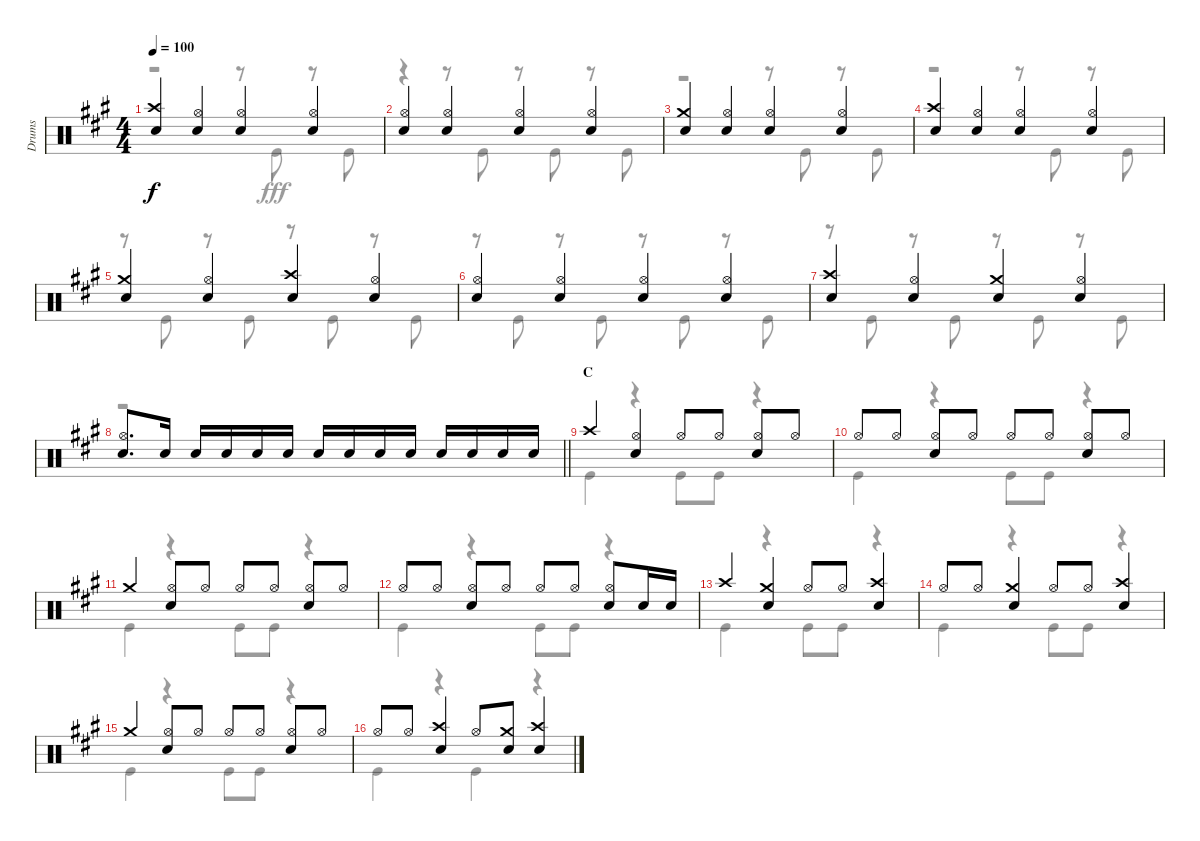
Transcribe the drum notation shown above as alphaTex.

\track ("Drums" "Drums") {instrument percussion}
\staff {score}
\articulation defaults
\voice
\ts (4 4)
\tempo 100
\clef neutral
\ks a
("Crash high (hit)" "Snare (hit) 2").4{dy f} ("Hi-Hat (open)" "Snare (hit) 2").4 ("Hi-Hat (open)" "Snare (hit) 2").4 ("Hi-Hat (open)" "Snare (hit) 2").4 |
("Hi-Hat (open)" "Snare (hit) 2").4 ("Hi-Hat (open)" "Snare (hit) 2").4 ("Hi-Hat (open)" "Snare (hit) 2").4 ("Hi-Hat (open)" "Snare (hit) 2").4 |
("Crash medium (hit)" "Snare (hit) 2").4 ("Hi-Hat (open)" "Snare (hit) 2").4 ("Hi-Hat (open)" "Snare (hit) 2").4 ("Hi-Hat (open)" "Snare (hit) 2").4 |
("Crash high (hit)" "Snare (hit) 2").4 ("Hi-Hat (open)" "Snare (hit) 2").4 ("Hi-Hat (open)" "Snare (hit) 2").4 ("Hi-Hat (open)" "Snare (hit) 2").4 |
("Crash medium (hit)" "Snare (hit) 2").4 ("Hi-Hat (open)" "Snare (hit) 2").4 ("Crash high (hit)" "Snare (hit) 2").4 ("Hi-Hat (open)" "Snare (hit) 2").4 |
("Hi-Hat (open)" "Snare (hit) 2").4 ("Hi-Hat (open)" "Snare (hit) 2").4 ("Hi-Hat (open)" "Snare (hit) 2").4 ("Hi-Hat (open)" "Snare (hit) 2").4 |
("Crash high (hit)" "Snare (hit) 2").4 ("Hi-Hat (open)" "Snare (hit) 2").4 ("Crash medium (hit)" "Snare (hit) 2").4 ("Hi-Hat (open)" "Snare (hit) 2").4 |
\barLineRight lightlight
("Hi-Hat (open)" "Snare (hit) 2").8{d} "Snare (hit) 2".16 "Snare (hit) 2".16 "Snare (hit) 2".16 "Snare (hit) 2".16 "Snare (hit) 2".16 "Snare (hit) 2".16 "Snare (hit) 2".16 "Snare (hit) 2".16 "Snare (hit) 2".16 "Snare (hit) 2".16 "Snare (hit) 2".16 "Snare (hit) 2".16 "Snare (hit) 2".16 |
\section ("" "C")
"Crash high (hit)".4 ("Hi-Hat (open)" "Snare (hit) 2").4 "Hi-Hat (open)".8 "Hi-Hat (open)".8 ("Hi-Hat (open)" "Snare (hit) 2").8 "Hi-Hat (open)".8 |
"Hi-Hat (open)".8 "Hi-Hat (open)".8 ("Hi-Hat (open)" "Snare (hit) 2").8 "Hi-Hat (open)".8 "Hi-Hat (open)".8 "Hi-Hat (open)".8 ("Hi-Hat (open)" "Snare (hit) 2").8 "Hi-Hat (open)".8 |
"Crash medium (hit)".4 ("Hi-Hat (open)" "Snare (hit) 2").8 "Hi-Hat (open)".8 "Hi-Hat (open)".8 "Hi-Hat (open)".8 ("Hi-Hat (open)" "Snare (hit) 2").8 "Hi-Hat (open)".8 |
"Hi-Hat (open)".8 "Hi-Hat (open)".8 ("Hi-Hat (open)" "Snare (hit) 2").8 "Hi-Hat (open)".8 "Hi-Hat (open)".8 "Hi-Hat (open)".8 ("Hi-Hat (open)" "Snare (hit) 2").8 "Snare (hit) 2".16 "Snare (hit) 2".16 |
"Crash high (hit)".4 ("Crash medium (hit)" "Snare (hit) 2").4 "Hi-Hat (open)".8 "Hi-Hat (open)".8 ("Crash high (hit)" "Snare (hit) 2").4 |
"Hi-Hat (open)".8 "Hi-Hat (open)".8 ("Crash medium (hit)" "Snare (hit) 2").4 "Hi-Hat (open)".8 "Hi-Hat (open)".8 ("Crash high (hit)" "Snare (hit) 2").4 |
"Crash medium (hit)".4 ("Hi-Hat (open)" "Snare (hit) 2").8 "Hi-Hat (open)".8 "Hi-Hat (open)".8 "Hi-Hat (open)".8 ("Hi-Hat (open)" "Snare (hit) 2").8 "Hi-Hat (open)".8 |
"Hi-Hat (open)".8 "Hi-Hat (open)".8 ("Crash high (hit)" "Snare (hit) 2").4 "Hi-Hat (open)".8 ("Crash medium (hit)" "Snare (hit) 2").8 ("Crash high (hit)" "Snare (hit) 2").4
\voice
\clef neutral
\ottava regular
\simile none
\ks a
r.2{dy fff} r.8 "Kick (hit)".8 r.8 "Kick (hit)".8 |
r.4 r.8 "Kick (hit)".8 r.8 "Kick (hit)".8 r.8 "Kick (hit)".8 |
r.2 r.8 "Kick (hit)".8 r.8 "Kick (hit)".8 |
r.2 r.8 "Kick (hit)".8 r.8 "Kick (hit)".8 |
r.8 "Kick (hit)".8 r.8 "Kick (hit)".8 r.8 "Kick (hit)".8 r.8 "Kick (hit)".8 |
r.8 "Kick (hit)".8 r.8 "Kick (hit)".8 r.8 "Kick (hit)".8 r.8 "Kick (hit)".8 |
r.8 "Kick (hit)".8 r.8 "Kick (hit)".8 r.8 "Kick (hit)".8 r.8 "Kick (hit)".8 |
\barLineRight lightlight
r.1 |
"Kick (hit)".4 r.4 "Kick (hit)".8 "Kick (hit)".8 r.4 |
"Kick (hit)".4 r.4 "Kick (hit)".8 "Kick (hit)".8 r.4 |
"Kick (hit)".4 r.4 "Kick (hit)".8 "Kick (hit)".8 r.4 |
"Kick (hit)".4 r.4 "Kick (hit)".8 "Kick (hit)".8 r.4 |
"Kick (hit)".4 r.4 "Kick (hit)".8 "Kick (hit)".8 r.4 |
"Kick (hit)".4 r.4 "Kick (hit)".8 "Kick (hit)".8 r.4 |
"Kick (hit)".4 r.4 "Kick (hit)".8 "Kick (hit)".8 r.4 |
"Kick (hit)".4 r.4 "Kick (hit)".4 r.4
